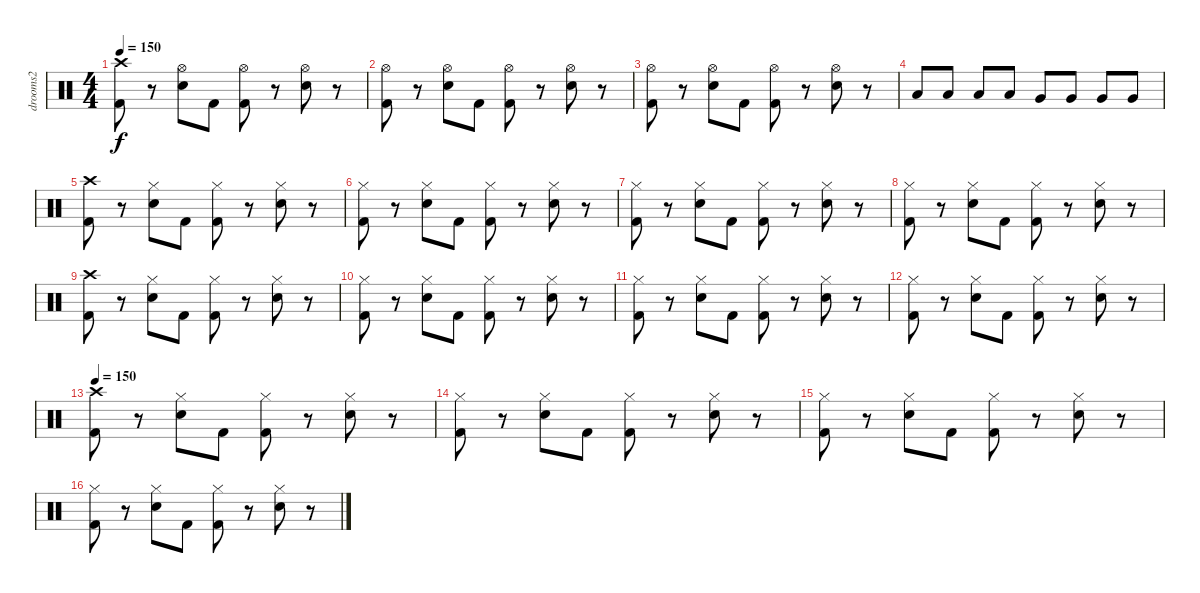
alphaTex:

\track ("drooms2" "drooms2") {instrument percussion}
\staff {score}
\articulation defaults
\ts (4 4)
\tempo 150
\clef neutral
\ks c
("Kick (hit) 2" "Crash high (hit)").8{dy f} r.8 ("Hi-Hat (open)" "Snare (hit) 2").8 "Kick (hit) 2".8 ("Hi-Hat (open)" "Kick (hit) 2").8 r.8 ("Hi-Hat (open)" "Snare (hit) 2").8 r.8 |
("Kick (hit) 2" "Hi-Hat (open)").8 r.8 ("Snare (hit) 2" "Hi-Hat (open)").8 "Kick (hit) 2".8 ("Kick (hit) 2" "Hi-Hat (open)").8 r.8 ("Snare (hit) 2" "Hi-Hat (open)").8 r.8 |
("Kick (hit) 2" "Hi-Hat (open)").8 r.8 ("Snare (hit) 2" "Hi-Hat (open)").8 "Kick (hit) 2".8 ("Kick (hit) 2" "Hi-Hat (open)").8 r.8 ("Snare (hit) 2" "Hi-Hat (open)").8 r.8 |
"Low Tom (hit)".8 "Low Tom (hit)".8 "Low Tom (hit)".8 "Low Tom (hit)".8 "Very Low Tom (hit)".8 "Very Low Tom (hit)".8 "Very Low Tom (hit)".8 "Very Low Tom (hit)".8 |
("Kick (hit) 2" "Crash high (hit)").8 r.8 ("Hi-Hat (closed)" "Snare (hit) 2").8 "Kick (hit) 2".8 ("Hi-Hat (closed)" "Kick (hit) 2").8 r.8 ("Hi-Hat (closed)" "Snare (hit) 2").8 r.8 |
("Kick (hit) 2" "Hi-Hat (closed)").8 r.8 ("Snare (hit) 2" "Hi-Hat (closed)").8 "Kick (hit) 2".8 ("Kick (hit) 2" "Hi-Hat (closed)").8 r.8 ("Snare (hit) 2" "Hi-Hat (closed)").8 r.8 |
("Kick (hit) 2" "Hi-Hat (closed)").8 r.8 ("Snare (hit) 2" "Hi-Hat (closed)").8 "Kick (hit) 2".8 ("Kick (hit) 2" "Hi-Hat (closed)").8 r.8 ("Snare (hit) 2" "Hi-Hat (closed)").8 r.8 |
("Kick (hit) 2" "Hi-Hat (closed)").8 r.8 ("Snare (hit) 2" "Hi-Hat (closed)").8 "Kick (hit) 2".8 ("Kick (hit) 2" "Hi-Hat (closed)").8 r.8 ("Snare (hit) 2" "Hi-Hat (closed)").8 r.8 |
("Kick (hit) 2" "Crash high (hit)").8 r.8 ("Hi-Hat (closed)" "Snare (hit) 2").8 "Kick (hit) 2".8 ("Hi-Hat (closed)" "Kick (hit) 2").8 r.8 ("Hi-Hat (closed)" "Snare (hit) 2").8 r.8 |
("Kick (hit) 2" "Hi-Hat (closed)").8 r.8 ("Snare (hit) 2" "Hi-Hat (closed)").8 "Kick (hit) 2".8 ("Kick (hit) 2" "Hi-Hat (closed)").8 r.8 ("Snare (hit) 2" "Hi-Hat (closed)").8 r.8 |
("Kick (hit) 2" "Hi-Hat (closed)").8 r.8 ("Snare (hit) 2" "Hi-Hat (closed)").8 "Kick (hit) 2".8 ("Kick (hit) 2" "Hi-Hat (closed)").8 r.8 ("Snare (hit) 2" "Hi-Hat (closed)").8 r.8 |
("Kick (hit) 2" "Hi-Hat (closed)").8 r.8 ("Snare (hit) 2" "Hi-Hat (closed)").8 "Kick (hit) 2".8 ("Kick (hit) 2" "Hi-Hat (closed)").8 r.8 ("Snare (hit) 2" "Hi-Hat (closed)").8 r.8 |
\tempo 150
("Kick (hit) 2" "Crash high (hit)").8 r.8 ("Hi-Hat (closed)" "Snare (hit) 2").8 "Kick (hit) 2".8 ("Hi-Hat (closed)" "Kick (hit) 2").8 r.8 ("Hi-Hat (closed)" "Snare (hit) 2").8 r.8 |
("Kick (hit) 2" "Hi-Hat (closed)").8 r.8 ("Snare (hit) 2" "Hi-Hat (closed)").8 "Kick (hit) 2".8 ("Kick (hit) 2" "Hi-Hat (closed)").8 r.8 ("Snare (hit) 2" "Hi-Hat (closed)").8 r.8 |
("Kick (hit) 2" "Hi-Hat (closed)").8 r.8 ("Snare (hit) 2" "Hi-Hat (closed)").8 "Kick (hit) 2".8 ("Kick (hit) 2" "Hi-Hat (closed)").8 r.8 ("Snare (hit) 2" "Hi-Hat (closed)").8 r.8 |
("Kick (hit) 2" "Hi-Hat (closed)").8 r.8 ("Snare (hit) 2" "Hi-Hat (closed)").8 "Kick (hit) 2".8 ("Kick (hit) 2" "Hi-Hat (closed)").8 r.8 ("Snare (hit) 2" "Hi-Hat (closed)").8 r.8
